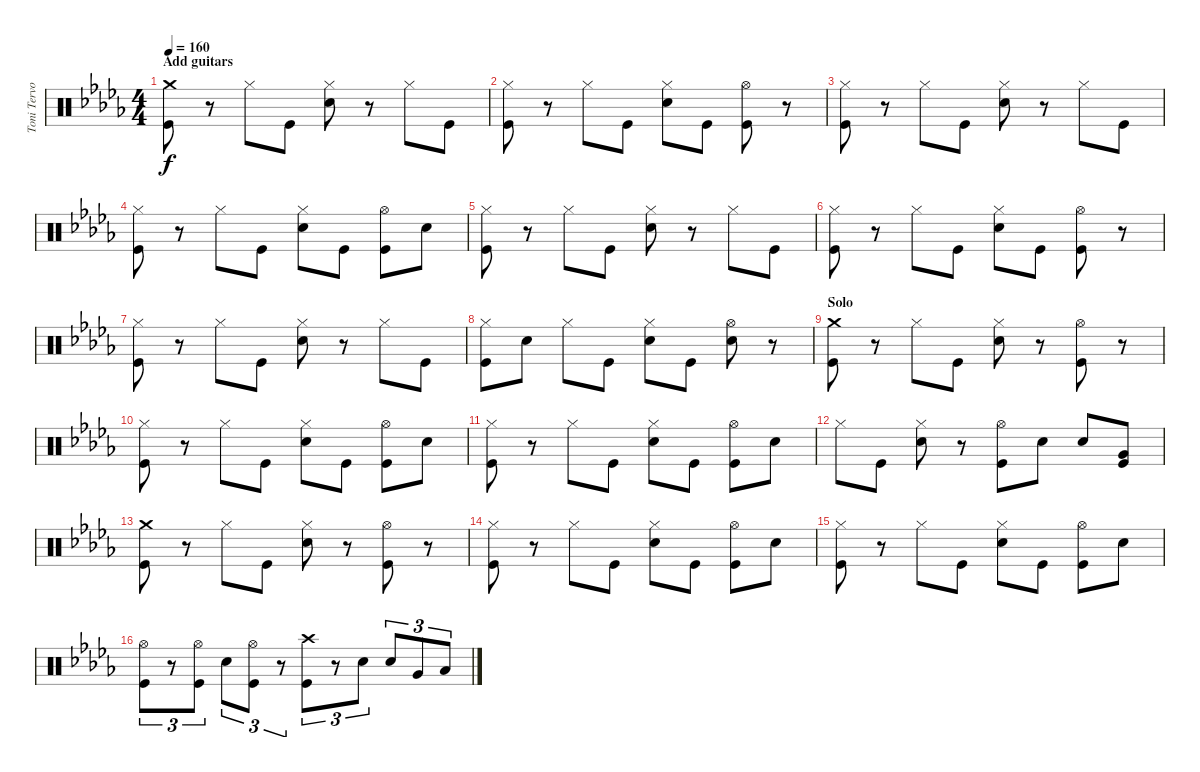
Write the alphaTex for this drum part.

\track ("Toni Tervo (drums)" "Toni Tervo") {instrument percussion}
\staff {score}
\articulation defaults
\ts (4 4)
\section ("" "Add guitars")
\tempo 160
\clef neutral
\ks bbminor
("Crash medium (hit)" "Kick (hit)").8{dy f} r.8 "Hi-Hat (closed)".8 "Kick (hit)".8 ("Hi-Hat (closed)" "Snare (hit) 2").8 r.8 "Hi-Hat (closed)".8 "Kick (hit)".8 |
("Hi-Hat (closed)" "Kick (hit)").8 r.8 "Hi-Hat (closed)".8 "Kick (hit)".8 ("Hi-Hat (closed)" "Snare (hit) 2").8 "Kick (hit)".8 ("Hi-Hat (open)" "Kick (hit)").8 r.8 |
("Kick (hit)" "Hi-Hat (closed)").8 r.8 "Hi-Hat (closed)".8 "Kick (hit)".8 ("Hi-Hat (closed)" "Snare (hit) 2").8 r.8 "Hi-Hat (closed)".8 "Kick (hit)".8 |
("Hi-Hat (closed)" "Kick (hit)").8 r.8 "Hi-Hat (closed)".8 "Kick (hit)".8 ("Hi-Hat (closed)" "Snare (hit) 2").8 "Kick (hit)".8 ("Hi-Hat (open)" "Kick (hit)").8 "Snare (hit) 2".8 |
("Kick (hit)" "Hi-Hat (closed)").8 r.8 "Hi-Hat (closed)".8 "Kick (hit)".8 ("Hi-Hat (closed)" "Snare (hit) 2").8 r.8 "Hi-Hat (closed)".8 "Kick (hit)".8 |
("Hi-Hat (closed)" "Kick (hit)").8 r.8 "Hi-Hat (closed)".8 "Kick (hit)".8 ("Hi-Hat (closed)" "Snare (hit) 2").8 "Kick (hit)".8 ("Hi-Hat (open)" "Kick (hit)").8 r.8 |
("Kick (hit)" "Hi-Hat (closed)").8 r.8 "Hi-Hat (closed)".8 "Kick (hit)".8 ("Hi-Hat (closed)" "Snare (hit) 2").8 r.8 "Hi-Hat (closed)".8 "Kick (hit)".8 |
("Hi-Hat (closed)" "Kick (hit)").8 "Snare (hit) 2".8 "Hi-Hat (closed)".8 "Kick (hit)".8 ("Hi-Hat (closed)" "Snare (hit) 2").8 "Kick (hit)".8 ("Snare (hit) 2" "Hi-Hat (open)").8 r.8 |
\section ("" "Solo")
("Kick (hit)" "Crash medium (hit)").8 r.8 "Hi-Hat (closed)".8 "Kick (hit)".8 ("Hi-Hat (closed)" "Snare (hit) 2").8 r.8 ("Hi-Hat (open)" "Kick (hit)").8 r.8 |
("Hi-Hat (closed)" "Kick (hit)").8 r.8 "Hi-Hat (closed)".8 "Kick (hit)".8 ("Hi-Hat (closed)" "Snare (hit) 2").8 "Kick (hit)".8 ("Hi-Hat (open)" "Kick (hit)").8 "Snare (hit) 2".8 |
("Hi-Hat (closed)" "Kick (hit)").8 r.8 "Hi-Hat (closed)".8 "Kick (hit)".8 ("Hi-Hat (closed)" "Snare (hit) 2").8 "Kick (hit)".8 ("Hi-Hat (open)" "Kick (hit)").8 "Snare (hit) 2".8 |
"Hi-Hat (closed)".8 "Kick (hit)".8 ("Snare (hit) 2" "Hi-Hat (closed)").8 r.8 ("Hi-Hat (open)" "Kick (hit)").8 "Snare (hit) 2".8 "Snare (hit) 2".8 ("Kick (hit)" "Very Low Tom (hit)").8 |
("Kick (hit)" "Crash medium (hit)").8 r.8 "Hi-Hat (closed)".8 "Kick (hit)".8 ("Hi-Hat (closed)" "Snare (hit) 2").8 r.8 ("Hi-Hat (open)" "Kick (hit)").8 r.8 |
("Hi-Hat (closed)" "Kick (hit)").8 r.8 "Hi-Hat (closed)".8 "Kick (hit)".8 ("Hi-Hat (closed)" "Snare (hit) 2").8 "Kick (hit)".8 ("Hi-Hat (open)" "Kick (hit)").8 "Snare (hit) 2".8 |
("Hi-Hat (closed)" "Kick (hit)").8 r.8 "Hi-Hat (closed)".8 "Kick (hit)".8 ("Hi-Hat (closed)" "Snare (hit) 2").8 "Kick (hit)".8 ("Hi-Hat (open)" "Kick (hit)").8 "Snare (hit) 2".8 |
("Kick (hit)" "Hi-Hat (open)").8{tu (3 2)} r.8{tu (3 2)} ("Kick (hit)" "Hi-Hat (open)").8{tu (3 2)} "Snare (hit) 2".8{tu (3 2)} ("Kick (hit)" "Hi-Hat (open)").8{tu (3 2)} r.8{tu (3 2)} ("Crash high (hit)" "Kick (hit)").8{tu (3 2)} r.8{tu (3 2)} "Snare (hit) 2".8{tu (3 2)} "Snare (hit) 2".8{tu (3 2)} "Very Low Tom (hit)".8{tu (3 2)} "Low Floor Tom (hit)".8{tu (3 2)}
